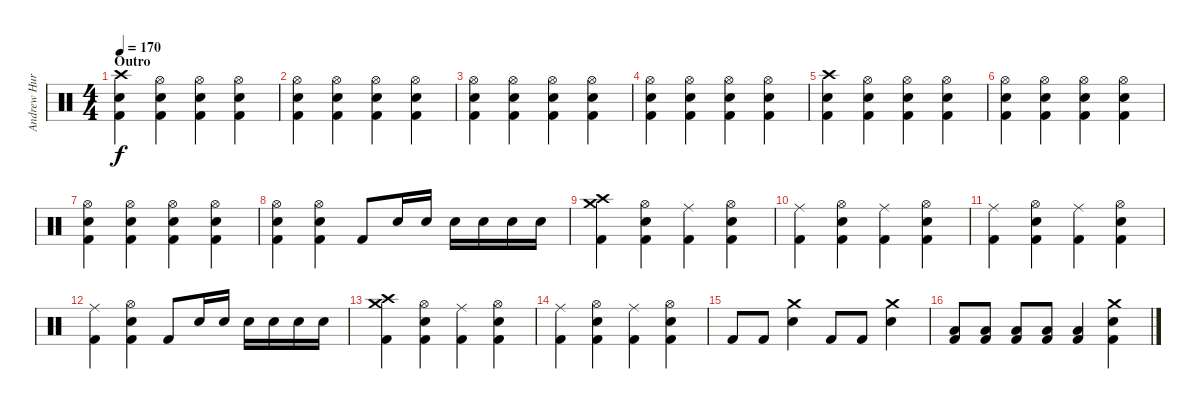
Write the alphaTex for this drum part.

\track ("Andrew Hurley (Drums)" "Andrew Hur") {instrument percussion}
\staff {score}
\articulation defaults
\ts (4 4)
\section ("" "Outro")
\tempo 170
\clef neutral
\ks c
("Crash high (hit)" "Electric Snare (hit)" "Kick (hit) 2").4{dy f} ("Hi-Hat (open)" "Electric Snare (hit)" "Kick (hit) 2").4 ("Hi-Hat (open)" "Electric Snare (hit)" "Kick (hit) 2").4 ("Hi-Hat (open)" "Electric Snare (hit)" "Kick (hit) 2").4 |
("Hi-Hat (open)" "Electric Snare (hit)" "Kick (hit) 2").4 ("Hi-Hat (open)" "Electric Snare (hit)" "Kick (hit) 2").4 ("Hi-Hat (open)" "Electric Snare (hit)" "Kick (hit) 2").4 ("Hi-Hat (open)" "Electric Snare (hit)" "Kick (hit) 2").4 |
("Hi-Hat (open)" "Electric Snare (hit)" "Kick (hit) 2").4 ("Hi-Hat (open)" "Electric Snare (hit)" "Kick (hit) 2").4 ("Hi-Hat (open)" "Electric Snare (hit)" "Kick (hit) 2").4 ("Hi-Hat (open)" "Electric Snare (hit)" "Kick (hit) 2").4 |
("Hi-Hat (open)" "Electric Snare (hit)" "Kick (hit) 2").4 ("Hi-Hat (open)" "Electric Snare (hit)" "Kick (hit) 2").4 ("Hi-Hat (open)" "Electric Snare (hit)" "Kick (hit) 2").4 ("Hi-Hat (open)" "Electric Snare (hit)" "Kick (hit) 2").4 |
("Crash high (hit)" "Electric Snare (hit)" "Kick (hit) 2").4 ("Hi-Hat (open)" "Electric Snare (hit)" "Kick (hit) 2").4 ("Hi-Hat (open)" "Electric Snare (hit)" "Kick (hit) 2").4 ("Hi-Hat (open)" "Electric Snare (hit)" "Kick (hit) 2").4 |
("Hi-Hat (open)" "Electric Snare (hit)" "Kick (hit) 2").4 ("Hi-Hat (open)" "Electric Snare (hit)" "Kick (hit) 2").4 ("Hi-Hat (open)" "Electric Snare (hit)" "Kick (hit) 2").4 ("Hi-Hat (open)" "Electric Snare (hit)" "Kick (hit) 2").4 |
("Hi-Hat (open)" "Electric Snare (hit)" "Kick (hit) 2").4 ("Hi-Hat (open)" "Electric Snare (hit)" "Kick (hit) 2").4 ("Hi-Hat (open)" "Electric Snare (hit)" "Kick (hit) 2").4 ("Hi-Hat (open)" "Electric Snare (hit)" "Kick (hit) 2").4 |
("Hi-Hat (open)" "Electric Snare (hit)" "Kick (hit) 2").4 ("Hi-Hat (open)" "Electric Snare (hit)" "Kick (hit) 2").4 "Kick (hit) 2".8 "Electric Snare (hit)".16 "Electric Snare (hit)".16 "Electric Snare (hit)".16 "Electric Snare (hit)".16 "Electric Snare (hit)".16 "Electric Snare (hit)".16 |
("Crash high (hit)" "Crash medium (hit)" "Kick (hit) 2").4 ("Hi-Hat (open)" "Electric Snare (hit)" "Kick (hit) 2").4 ("Ride (middle)" "Kick (hit) 2").4 ("Hi-Hat (open)" "Electric Snare (hit)" "Kick (hit) 2").4 |
("Ride (middle)" "Kick (hit) 2").4 ("Hi-Hat (open)" "Electric Snare (hit)" "Kick (hit) 2").4 ("Ride (middle)" "Kick (hit) 2").4 ("Hi-Hat (open)" "Electric Snare (hit)" "Kick (hit) 2").4 |
("Ride (middle)" "Kick (hit) 2").4 ("Hi-Hat (open)" "Electric Snare (hit)" "Kick (hit) 2").4 ("Ride (middle)" "Kick (hit) 2").4 ("Hi-Hat (open)" "Electric Snare (hit)" "Kick (hit) 2").4 |
("Ride (middle)" "Kick (hit) 2").4 ("Hi-Hat (open)" "Electric Snare (hit)" "Kick (hit) 2").4 "Kick (hit) 2".8 "Electric Snare (hit)".16 "Electric Snare (hit)".16 "Electric Snare (hit)".16 "Electric Snare (hit)".16 "Electric Snare (hit)".16 "Electric Snare (hit)".16 |
("Crash high (hit)" "Crash medium (hit)" "Kick (hit) 2").4 ("Hi-Hat (open)" "Electric Snare (hit)" "Kick (hit) 2").4 ("Ride (middle)" "Kick (hit) 2").4 ("Hi-Hat (open)" "Electric Snare (hit)" "Kick (hit) 2").4 |
("Ride (middle)" "Kick (hit) 2").4 ("Hi-Hat (open)" "Electric Snare (hit)" "Kick (hit) 2").4 ("Ride (middle)" "Kick (hit) 2").4 ("Hi-Hat (open)" "Electric Snare (hit)" "Kick (hit) 2").4 |
"Kick (hit) 2".8 "Kick (hit) 2".8 ("Crash medium (hit)" "Electric Snare (hit)").4 "Kick (hit) 2".8 "Kick (hit) 2".8 ("Crash medium (hit)" "Electric Snare (hit)").4 |
("Low Tom (hit)" "Kick (hit) 2").8 ("Low Tom (hit)" "Kick (hit) 2").8 ("Low Tom (hit)" "Kick (hit) 2").8 ("Low Tom (hit)" "Kick (hit) 2").8 ("Low Tom (hit)" "Kick (hit) 2").4 ("Crash medium (hit)" "Electric Snare (hit)" "Kick (hit) 2").4
